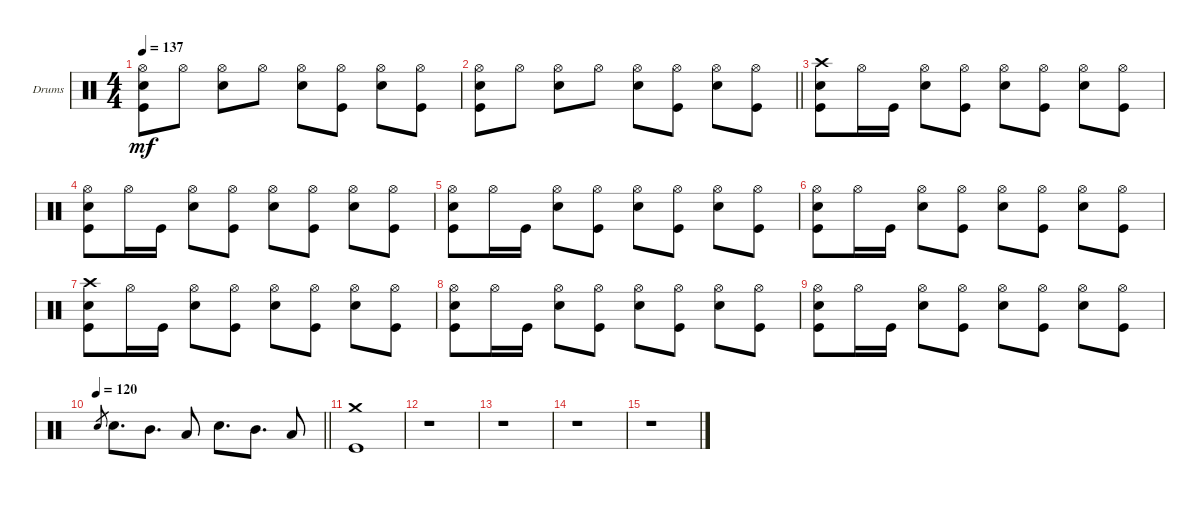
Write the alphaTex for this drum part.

\bracketExtendMode groupsimilarinstruments
\firstSystemTrackNameOrientation horizontal
\otherSystemsTrackNameOrientation horizontal
\track ("Fabrizio" "Drums") {instrument percussion}
\staff {score}
\articulation defaults
\ts (4 4)
\tempo 137
\clef neutral
\scale
0.333333
\ks c
("Hi-Hat (open)" "Snare (hit) 2" "Kick (hit)").8{dy mf} "Hi-Hat (open)".8 ("Hi-Hat (open)" "Snare (hit) 2").8 "Hi-Hat (open)".8 ("Hi-Hat (open)" "Snare (hit) 2").8 ("Hi-Hat (open)" "Kick (hit)").8 ("Hi-Hat (open)" "Snare (hit) 2").8 ("Hi-Hat (open)" "Kick (hit)").8 |
\scale
0.333333
\barLineRight lightlight
("Hi-Hat (open)" "Snare (hit) 2" "Kick (hit)").8 "Hi-Hat (open)".8 ("Hi-Hat (open)" "Snare (hit) 2").8 "Hi-Hat (open)".8 ("Hi-Hat (open)" "Snare (hit) 2").8 ("Hi-Hat (open)" "Kick (hit)").8 ("Hi-Hat (open)" "Snare (hit) 2").8 ("Hi-Hat (open)" "Kick (hit)").8 |
\scale
0.333333 ("Crash high (hit)" "Kick (hit)" "Snare (hit) 2").8 "Hi-Hat (open)".16 "Kick (hit)".16 ("Hi-Hat (open)" "Snare (hit) 2").8 ("Hi-Hat (open)" "Kick (hit)").8 ("Hi-Hat (open)" "Snare (hit) 2").8 ("Hi-Hat (open)" "Kick (hit)").8 ("Hi-Hat (open)" "Snare (hit) 2").8 ("Hi-Hat (open)" "Kick (hit)").8 |
\scale
0.333333 ("Hi-Hat (open)" "Snare (hit) 2" "Kick (hit)").8 "Hi-Hat (open)".16 "Kick (hit)".16 ("Hi-Hat (open)" "Snare (hit) 2").8 ("Hi-Hat (open)" "Kick (hit)").8 ("Hi-Hat (open)" "Snare (hit) 2").8 ("Hi-Hat (open)" "Kick (hit)").8 ("Hi-Hat (open)" "Snare (hit) 2").8 ("Hi-Hat (open)" "Kick (hit)").8 |
\scale
0.333333 ("Hi-Hat (open)" "Snare (hit) 2" "Kick (hit)").8 "Hi-Hat (open)".16 "Kick (hit)".16 ("Hi-Hat (open)" "Snare (hit) 2").8 ("Hi-Hat (open)" "Kick (hit)").8 ("Hi-Hat (open)" "Snare (hit) 2").8 ("Hi-Hat (open)" "Kick (hit)").8 ("Hi-Hat (open)" "Snare (hit) 2").8 ("Hi-Hat (open)" "Kick (hit)").8 |
\scale
0.333333 ("Hi-Hat (open)" "Snare (hit) 2" "Kick (hit)").8 "Hi-Hat (open)".16 "Kick (hit)".16 ("Hi-Hat (open)" "Snare (hit) 2").8 ("Hi-Hat (open)" "Kick (hit)").8 ("Hi-Hat (open)" "Snare (hit) 2").8 ("Hi-Hat (open)" "Kick (hit)").8 ("Hi-Hat (open)" "Snare (hit) 2").8 ("Hi-Hat (open)" "Kick (hit)").8 |
\scale
0.333333 ("Crash high (hit)" "Kick (hit)" "Snare (hit) 2").8 "Hi-Hat (open)".16 "Kick (hit)".16 ("Hi-Hat (open)" "Snare (hit) 2").8 ("Hi-Hat (open)" "Kick (hit)").8 ("Hi-Hat (open)" "Snare (hit) 2").8 ("Hi-Hat (open)" "Kick (hit)").8 ("Hi-Hat (open)" "Snare (hit) 2").8 ("Hi-Hat (open)" "Kick (hit)").8 |
\scale
0.333333 ("Hi-Hat (open)" "Snare (hit) 2" "Kick (hit)").8 "Hi-Hat (open)".16 "Kick (hit)".16 ("Hi-Hat (open)" "Snare (hit) 2").8 ("Hi-Hat (open)" "Kick (hit)").8 ("Hi-Hat (open)" "Snare (hit) 2").8 ("Hi-Hat (open)" "Kick (hit)").8 ("Hi-Hat (open)" "Snare (hit) 2").8 ("Hi-Hat (open)" "Kick (hit)").8 |
\scale
0.333333 ("Hi-Hat (open)" "Snare (hit) 2" "Kick (hit)").8 "Hi-Hat (open)".16 "Kick (hit)".16 ("Hi-Hat (open)" "Snare (hit) 2").8 ("Hi-Hat (open)" "Kick (hit)").8 ("Hi-Hat (open)" "Snare (hit) 2").8 ("Hi-Hat (open)" "Kick (hit)").8 ("Hi-Hat (open)" "Snare (hit) 2").8 ("Hi-Hat (open)" "Kick (hit)").8 |
\tempo 120
\scale
0.333333
\barLineRight lightlight "Snare (hit) 2".8{gr} "Snare (hit) 2".8{d} "Mid Tom (hit)".8{d} "Low Tom (hit)".8 "Snare (hit) 2".8{d} "Mid Tom (hit)".8{d} "Low Tom (hit)".8
|
\scale
0.333333 ("Kick (hit)" "Crash medium (hit)").1 |
\scale
0.333333 r.1 |
\scale
0.333333 r.1 |
\scale
0.333333 r.1 |
r.1
